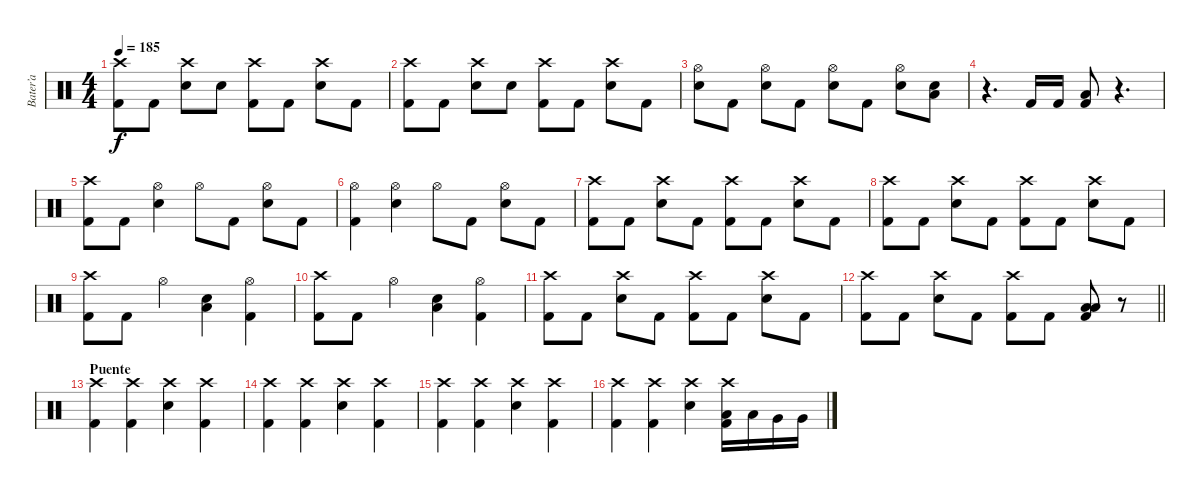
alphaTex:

\track ("Bater’a" "Bater’a") {instrument percussion}
\staff {score}
\articulation defaults
\ts (4 4)
\tempo 185
\clef neutral
\ks c
("Crash high (hit)" "Kick (hit) 2").8{dy f} "Kick (hit) 2".8 ("Crash high (hit)" "Electric Snare (hit)").8 "Electric Snare (hit)".8 ("Crash high (hit)" "Kick (hit) 2").8 "Kick (hit) 2".8 ("Crash high (hit)" "Electric Snare (hit)").8 "Kick (hit) 2".8 |
("Crash high (hit)" "Kick (hit) 2").8 "Kick (hit) 2".8 ("Crash high (hit)" "Electric Snare (hit)").8 "Electric Snare (hit)".8 ("Crash high (hit)" "Kick (hit) 2").8 "Kick (hit) 2".8 ("Crash high (hit)" "Electric Snare (hit)").8 "Kick (hit) 2".8 |
("Hi-Hat (open)" "Electric Snare (hit)").8 "Kick (hit) 2".8 ("Hi-Hat (open)" "Electric Snare (hit)").8 "Kick (hit) 2".8 ("Hi-Hat (open)" "Electric Snare (hit)").8 "Kick (hit) 2".8 ("Hi-Hat (open)" "Electric Snare (hit)").8 ("Low Floor Tom (hit)" "Electric Snare (hit)").8 |
r.4{d} "Kick (hit) 2".16 "Kick (hit) 2".16 ("Low Floor Tom (hit)" "Kick (hit) 2").8 r.4{d} |
("Crash high (hit)" "Kick (hit) 2").8 "Kick (hit) 2".8 ("Hi-Hat (open)" "Electric Snare (hit)").4 "Hi-Hat (open)".8 "Kick (hit) 2".8 ("Hi-Hat (open)" "Electric Snare (hit)").8 "Kick (hit) 2".8 |
("Hi-Hat (open)" "Kick (hit) 2").4 ("Hi-Hat (open)" "Electric Snare (hit)").4 "Hi-Hat (open)".8 "Kick (hit) 2".8 ("Hi-Hat (open)" "Electric Snare (hit)").8 "Kick (hit) 2".8 |
("Crash high (hit)" "Kick (hit) 2").8 "Kick (hit) 2".8 ("Crash high (hit)" "Electric Snare (hit)").8 "Kick (hit) 2".8 ("Crash high (hit)" "Kick (hit) 2").8 "Kick (hit) 2".8 ("Crash high (hit)" "Electric Snare (hit)").8 "Kick (hit) 2".8 |
("Crash high (hit)" "Kick (hit) 2").8 "Kick (hit) 2".8 ("Crash high (hit)" "Electric Snare (hit)").8 "Kick (hit) 2".8 ("Crash high (hit)" "Kick (hit) 2").8 "Kick (hit) 2".8 ("Crash high (hit)" "Electric Snare (hit)").8 "Kick (hit) 2".8 |
("Crash high (hit)" "Kick (hit) 2").8 "Kick (hit) 2".8 "Hi-Hat (open)".4 ("Low Floor Tom (hit)" "Electric Snare (hit)").4 ("Hi-Hat (open)" "Kick (hit) 2").4 |
("Crash high (hit)" "Kick (hit) 2").8 "Kick (hit) 2".8 "Hi-Hat (open)".4 ("Low Floor Tom (hit)" "Electric Snare (hit)").4 ("Hi-Hat (open)" "Kick (hit) 2").4 |
("Crash high (hit)" "Kick (hit) 2").8 "Kick (hit) 2".8 ("Crash high (hit)" "Electric Snare (hit)").8 "Kick (hit) 2".8 ("Crash high (hit)" "Kick (hit) 2").8 "Kick (hit) 2".8 ("Crash high (hit)" "Electric Snare (hit)").8 "Kick (hit) 2".8 |
\barLineRight lightlight
("Crash high (hit)" "Kick (hit) 2").8 "Kick (hit) 2".8 ("Crash high (hit)" "Electric Snare (hit)").8 "Kick (hit) 2".8 ("Crash high (hit)" "Kick (hit) 2").8 "Kick (hit) 2".8 ("Low Tom (hit)" "Low Floor Tom (hit)" "Kick (hit) 2").8 r.8 |
\section ("" "Puente")
("Crash high (hit)" "Kick (hit) 2").4 ("Crash high (hit)" "Kick (hit) 2").4 ("Crash high (hit)" "Electric Snare (hit)").4 ("Crash high (hit)" "Kick (hit) 2").4 |
("Crash high (hit)" "Kick (hit) 2").4 ("Crash high (hit)" "Kick (hit) 2").4 ("Crash high (hit)" "Electric Snare (hit)").4 ("Crash high (hit)" "Kick (hit) 2").4 |
("Crash high (hit)" "Kick (hit) 2").4 ("Crash high (hit)" "Kick (hit) 2").4 ("Crash high (hit)" "Electric Snare (hit)").4 ("Crash high (hit)" "Kick (hit) 2").4 |
("Crash high (hit)" "Kick (hit) 2").4 ("Crash high (hit)" "Kick (hit) 2").4 ("Crash high (hit)" "Electric Snare (hit)").4 ("Crash high (hit)" "Low Tom (hit)" "Kick (hit) 2").16 "Low Tom (hit)".16 "Very Low Tom (hit)".16 "Very Low Tom (hit)".16
